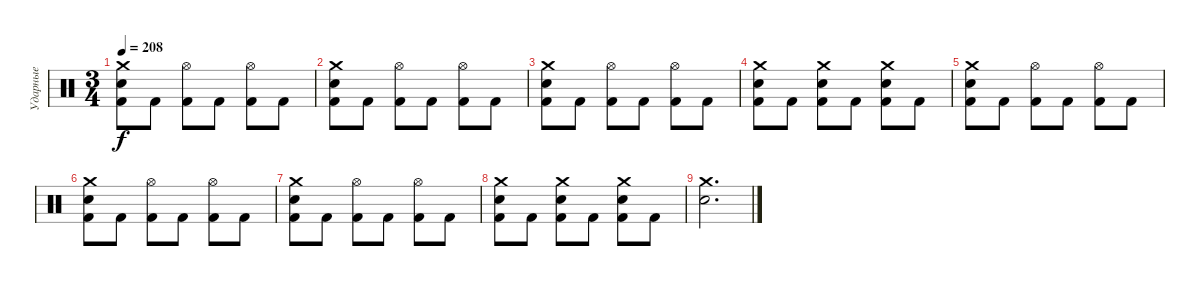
\track ("Ударные" "Ударные") {instrument percussion}
\staff {score}
\articulation defaults
\ts (3 4)
\tempo 208
\clef neutral
\ks c
("Crash medium (hit)" "Electric Snare (hit)" "Kick (hit) 2").8{dy f} "Kick (hit) 2".8 ("Hi-Hat (open)" "Kick (hit) 2").8 "Kick (hit) 2".8 ("Hi-Hat (open)" "Kick (hit) 2").8 "Kick (hit) 2".8 |
("Crash medium (hit)" "Electric Snare (hit)" "Kick (hit) 2").8 "Kick (hit) 2".8 ("Hi-Hat (open)" "Kick (hit) 2").8 "Kick (hit) 2".8 ("Hi-Hat (open)" "Kick (hit) 2").8 "Kick (hit) 2".8 |
("Crash medium (hit)" "Electric Snare (hit)" "Kick (hit) 2").8 "Kick (hit) 2".8 ("Hi-Hat (open)" "Kick (hit) 2").8 "Kick (hit) 2".8 ("Hi-Hat (open)" "Kick (hit) 2").8 "Kick (hit) 2".8 |
("Crash medium (hit)" "Electric Snare (hit)" "Kick (hit) 2").8 "Kick (hit) 2".8 ("Crash medium (hit)" "Electric Snare (hit)" "Kick (hit) 2").8 "Kick (hit) 2".8 ("Crash medium (hit)" "Electric Snare (hit)" "Kick (hit) 2").8 "Kick (hit) 2".8 |
("Crash medium (hit)" "Electric Snare (hit)" "Kick (hit) 2").8 "Kick (hit) 2".8 ("Hi-Hat (open)" "Kick (hit) 2").8 "Kick (hit) 2".8 ("Hi-Hat (open)" "Kick (hit) 2").8 "Kick (hit) 2".8 |
("Crash medium (hit)" "Electric Snare (hit)" "Kick (hit) 2").8 "Kick (hit) 2".8 ("Hi-Hat (open)" "Kick (hit) 2").8 "Kick (hit) 2".8 ("Hi-Hat (open)" "Kick (hit) 2").8 "Kick (hit) 2".8 |
("Crash medium (hit)" "Electric Snare (hit)" "Kick (hit) 2").8 "Kick (hit) 2".8 ("Hi-Hat (open)" "Kick (hit) 2").8 "Kick (hit) 2".8 ("Hi-Hat (open)" "Kick (hit) 2").8 "Kick (hit) 2".8 |
("Crash medium (hit)" "Electric Snare (hit)" "Kick (hit) 2").8 "Kick (hit) 2".8 ("Crash medium (hit)" "Electric Snare (hit)" "Kick (hit) 2").8 "Kick (hit) 2".8 ("Crash medium (hit)" "Electric Snare (hit)" "Kick (hit) 2").8 "Kick (hit) 2".8 |
("Crash medium (hit)" "Electric Snare (hit)").2{d}
